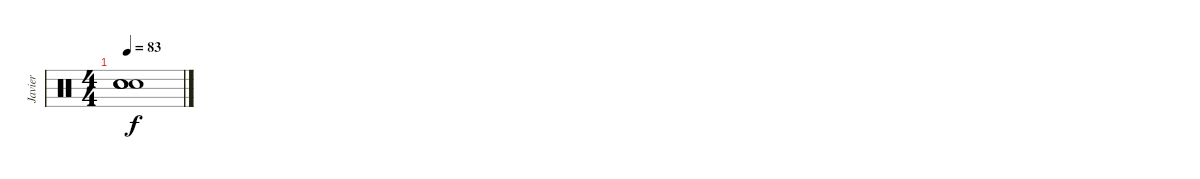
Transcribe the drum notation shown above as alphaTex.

\track ("Javier" "Javier") {instrument percussion}
\staff {score}
\articulation defaults
\ts (4 4)
\tempo 83
\clef neutral
\ks c
("Snare (hit)"{t} "Snare (hit)"{t} "Snare (hit)"{t} "Snare (hit)"{t}).1{dy f}
